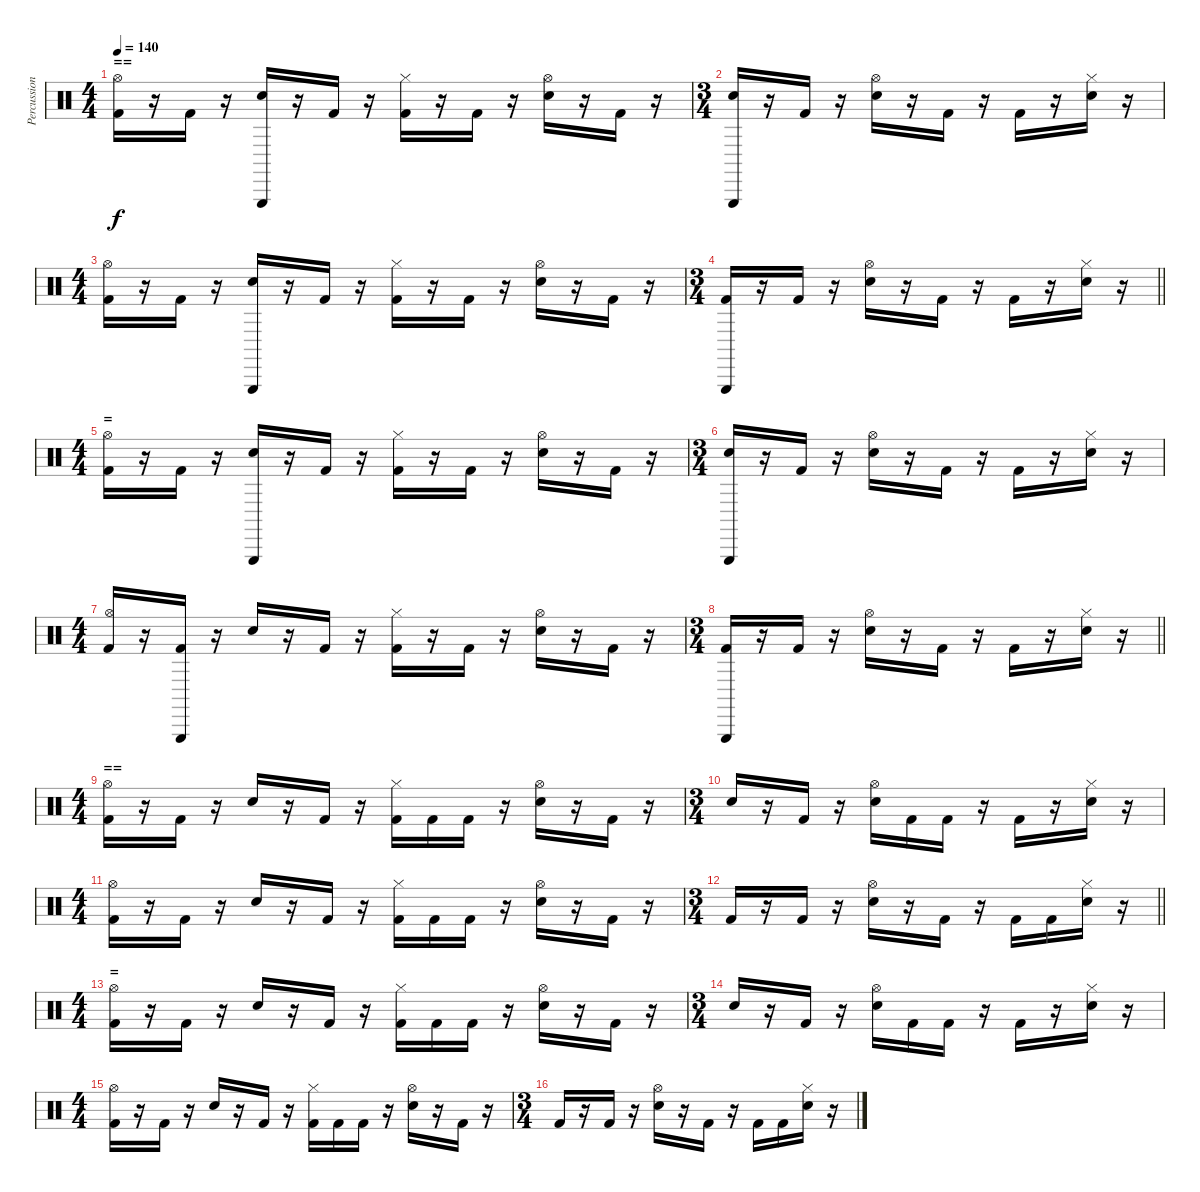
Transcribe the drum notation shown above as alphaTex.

\track ("Percussion" "Percussion") {instrument percussion}
\staff {score}
\articulation defaults
\ts (4 4)
\section ("" "==")
\tempo 140
\clef neutral
\ks c
("Kick (hit) 2" "Hi-Hat (open)").16{dy f} r.16 "Kick (hit) 2".16 r.16 ("Electric Snare (hit)" "Triangle (hit)").16 r.16 "Kick (hit) 2".16 r.16 ("Kick (hit) 2" "Hi-Hat (closed)").16 r.16 "Kick (hit) 2".16 r.16 ("Electric Snare (hit)" "Hi-Hat (open)").16 r.16 "Kick (hit) 2".16 r.16 |
\ts (3 4)
("Electric Snare (hit)" "Triangle (hit)").16 r.16 "Kick (hit) 2".16 r.16 ("Electric Snare (hit)" "Hi-Hat (open)").16 r.16 "Kick (hit) 2".16 r.16 "Kick (hit) 2".16 r.16 ("Electric Snare (hit)" "Hi-Hat (closed)").16 r.16 |
\ts (4 4)
("Kick (hit) 2" "Hi-Hat (open)").16 r.16 "Kick (hit) 2".16 r.16 ("Electric Snare (hit)" "Triangle (hit)").16 r.16 "Kick (hit) 2".16 r.16 ("Kick (hit) 2" "Hi-Hat (closed)").16 r.16 "Kick (hit) 2".16 r.16 ("Electric Snare (hit)" "Hi-Hat (open)").16 r.16 "Kick (hit) 2".16 r.16 |
\ts (3 4)
\barLineRight lightlight
("Kick (hit) 2" "Triangle (hit)").16 r.16 "Kick (hit) 2".16 r.16 ("Electric Snare (hit)" "Hi-Hat (open)").16 r.16 "Kick (hit) 2".16 r.16 "Kick (hit) 2".16 r.16 ("Electric Snare (hit)" "Hi-Hat (closed)").16 r.16 |
\ts (4 4)
\section ("" "=")
("Kick (hit) 2" "Hi-Hat (open)").16 r.16 "Kick (hit) 2".16 r.16 ("Electric Snare (hit)" "Triangle (hit)").16 r.16 "Kick (hit) 2".16 r.16 ("Kick (hit) 2" "Hi-Hat (closed)").16 r.16 "Kick (hit) 2".16 r.16 ("Electric Snare (hit)" "Hi-Hat (open)").16 r.16 "Kick (hit) 2".16 r.16 |
\ts (3 4)
("Electric Snare (hit)" "Triangle (hit)").16 r.16 "Kick (hit) 2".16 r.16 ("Electric Snare (hit)" "Hi-Hat (open)").16 r.16 "Kick (hit) 2".16 r.16 "Kick (hit) 2".16 r.16 ("Electric Snare (hit)" "Hi-Hat (closed)").16 r.16 |
\ts (4 4)
("Kick (hit) 2" "Hi-Hat (open)").16 r.16 ("Kick (hit) 2" "Triangle (hit)").16 r.16 "Electric Snare (hit)".16 r.16 "Kick (hit) 2".16 r.16 ("Kick (hit) 2" "Hi-Hat (closed)").16 r.16 "Kick (hit) 2".16 r.16 ("Electric Snare (hit)" "Hi-Hat (open)").16 r.16 "Kick (hit) 2".16 r.16 |
\ts (3 4)
\barLineRight lightlight
("Kick (hit) 2" "Triangle (hit)").16 r.16 "Kick (hit) 2".16 r.16 ("Electric Snare (hit)" "Hi-Hat (open)").16 r.16 "Kick (hit) 2".16 r.16 "Kick (hit) 2".16 r.16 ("Electric Snare (hit)" "Hi-Hat (closed)").16 r.16 |
\ts (4 4)
\section ("" "==")
("Kick (hit) 2" "Hi-Hat (open)").16 r.16 "Kick (hit) 2".16 r.16 "Electric Snare (hit)".16 r.16 "Kick (hit) 2".16 r.16 ("Kick (hit) 2" "Hi-Hat (closed)").16 "Kick (hit) 2".16 "Kick (hit) 2".16 r.16 ("Electric Snare (hit)" "Hi-Hat (open)").16 r.16 "Kick (hit) 2".16 r.16 |
\ts (3 4)
"Electric Snare (hit)".16 r.16 "Kick (hit) 2".16 r.16 ("Electric Snare (hit)" "Hi-Hat (open)").16 "Kick (hit) 2".16 "Kick (hit) 2".16 r.16 "Kick (hit) 2".16 r.16 ("Electric Snare (hit)" "Hi-Hat (closed)").16 r.16 |
\ts (4 4)
("Kick (hit) 2" "Hi-Hat (open)").16 r.16 "Kick (hit) 2".16 r.16 "Electric Snare (hit)".16 r.16 "Kick (hit) 2".16 r.16 ("Kick (hit) 2" "Hi-Hat (closed)").16 "Kick (hit) 2".16 "Kick (hit) 2".16 r.16 ("Electric Snare (hit)" "Hi-Hat (open)").16 r.16 "Kick (hit) 2".16 r.16 |
\ts (3 4)
\barLineRight lightlight "Kick (hit) 2".16
r.16 "Kick (hit) 2".16 r.16 ("Electric Snare (hit)" "Hi-Hat (open)").16 r.16 "Kick (hit) 2".16 r.16 "Kick (hit) 2".16 "Kick (hit) 2".16 ("Electric Snare (hit)" "Hi-Hat (closed)").16 r.16 |
\ts (4 4)
\section ("" "=")
("Kick (hit) 2" "Hi-Hat (open)").16 r.16 "Kick (hit) 2".16 r.16 "Electric Snare (hit)".16 r.16 "Kick (hit) 2".16 r.16 ("Kick (hit) 2" "Hi-Hat (closed)").16 "Kick (hit) 2".16 "Kick (hit) 2".16 r.16 ("Electric Snare (hit)" "Hi-Hat (open)").16 r.16 "Kick (hit) 2".16 r.16 |
\ts (3 4)
"Electric Snare (hit)".16 r.16 "Kick (hit) 2".16 r.16 ("Electric Snare (hit)" "Hi-Hat (open)").16 "Kick (hit) 2".16 "Kick (hit) 2".16 r.16 "Kick (hit) 2".16 r.16 ("Electric Snare (hit)" "Hi-Hat (closed)").16 r.16 |
\ts (4 4)
("Kick (hit) 2" "Hi-Hat (open)").16 r.16 "Kick (hit) 2".16 r.16 "Electric Snare (hit)".16 r.16 "Kick (hit) 2".16 r.16 ("Kick (hit) 2" "Hi-Hat (closed)").16 "Kick (hit) 2".16 "Kick (hit) 2".16 r.16 ("Electric Snare (hit)" "Hi-Hat (open)").16 r.16 "Kick (hit) 2".16 r.16 |
\ts (3 4)
"Kick (hit) 2".16 r.16 "Kick (hit) 2".16 r.16 ("Electric Snare (hit)" "Hi-Hat (open)").16 r.16 "Kick (hit) 2".16 r.16 "Kick (hit) 2".16 "Kick (hit) 2".16 ("Electric Snare (hit)" "Hi-Hat (closed)").16 r.16
